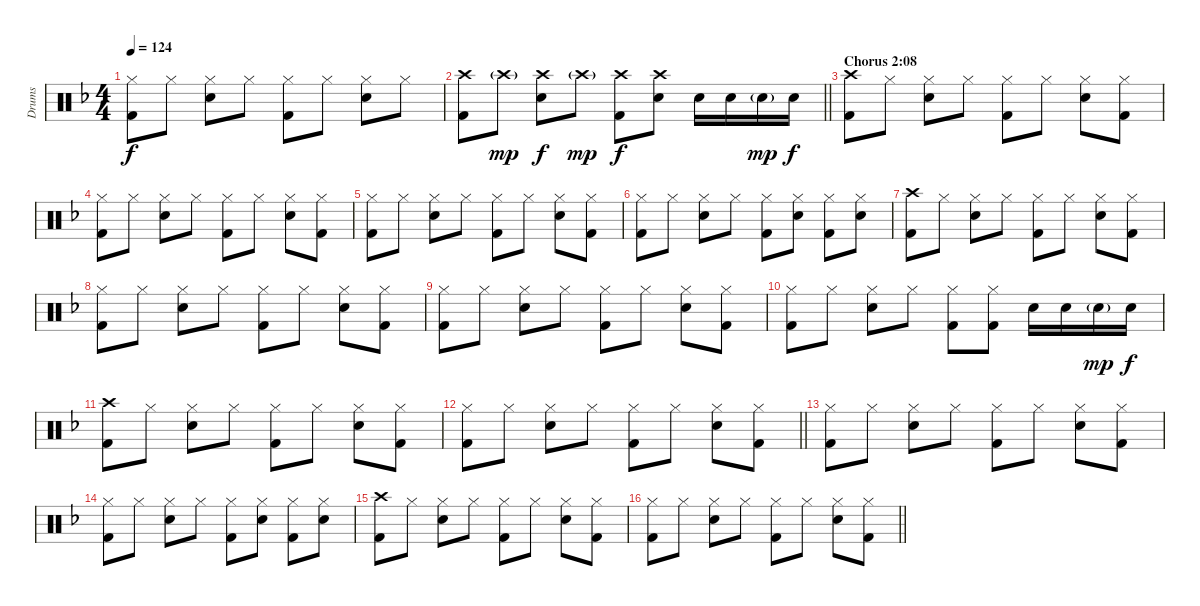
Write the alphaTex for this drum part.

\track ("Drums" "Drums") {instrument percussion}
\staff {score}
\articulation defaults
\ts (4 4)
\tempo 124
\clef neutral
\ks f
("Hi-Hat (closed)" "Kick (hit) 2").8{dy f} "Hi-Hat (closed)".8 ("Hi-Hat (closed)" "Snare (hit) 2").8 "Hi-Hat (closed)".8 ("Hi-Hat (closed)" "Kick (hit) 2").8 "Hi-Hat (closed)".8 ("Hi-Hat (closed)" "Snare (hit) 2").8 "Hi-Hat (closed)".8 |
\barLineRight lightlight
("Crash high (hit)" "Kick (hit) 2").8 "Crash high (hit)"{g}.8{dy mp} ("Crash high (hit)" "Snare (hit) 2").8{dy f} "Crash high (hit)"{g}.8{dy mp} ("Crash high (hit)" "Kick (hit) 2").8{dy f} ("Crash high (hit)" "Snare (hit) 2").8 "Snare (hit) 2".16 "Snare (hit) 2".16 "Snare (hit) 2"{g}.16{dy mp} "Snare (hit) 2".16{dy f} |
\section ("" "Chorus 2:08")
("Crash high (hit)" "Kick (hit) 2").8 "Hi-Hat (closed)".8 ("Hi-Hat (closed)" "Snare (hit) 2").8 "Hi-Hat (closed)".8 ("Hi-Hat (closed)" "Kick (hit) 2").8 "Hi-Hat (closed)".8 ("Hi-Hat (closed)" "Snare (hit) 2").8 ("Hi-Hat (closed)" "Kick (hit) 2").8 |
("Hi-Hat (closed)" "Kick (hit) 2").8 "Hi-Hat (closed)".8 ("Hi-Hat (closed)" "Snare (hit) 2").8 "Hi-Hat (closed)".8 ("Hi-Hat (closed)" "Kick (hit) 2").8 "Hi-Hat (closed)".8 ("Hi-Hat (closed)" "Snare (hit) 2").8 ("Hi-Hat (closed)" "Kick (hit) 2").8 |
("Hi-Hat (closed)" "Kick (hit) 2").8 "Hi-Hat (closed)".8 ("Hi-Hat (closed)" "Snare (hit) 2").8 "Hi-Hat (closed)".8 ("Hi-Hat (closed)" "Kick (hit) 2").8 "Hi-Hat (closed)".8 ("Hi-Hat (closed)" "Snare (hit) 2").8 ("Hi-Hat (closed)" "Kick (hit) 2").8 |
("Hi-Hat (closed)" "Kick (hit) 2").8 "Hi-Hat (closed)".8 ("Hi-Hat (closed)" "Snare (hit) 2").8 "Hi-Hat (closed)".8 ("Hi-Hat (closed)" "Kick (hit) 2").8 ("Hi-Hat (closed)" "Snare (hit) 2").8 ("Hi-Hat (closed)" "Kick (hit) 2").8 ("Hi-Hat (closed)" "Snare (hit) 2").8 |
("Crash high (hit)" "Kick (hit) 2").8 "Hi-Hat (closed)".8 ("Hi-Hat (closed)" "Snare (hit) 2").8 "Hi-Hat (closed)".8 ("Hi-Hat (closed)" "Kick (hit) 2").8 "Hi-Hat (closed)".8 ("Hi-Hat (closed)" "Snare (hit) 2").8 ("Hi-Hat (closed)" "Kick (hit) 2").8 |
("Hi-Hat (closed)" "Kick (hit) 2").8 "Hi-Hat (closed)".8 ("Hi-Hat (closed)" "Snare (hit) 2").8 "Hi-Hat (closed)".8 ("Hi-Hat (closed)" "Kick (hit) 2").8 "Hi-Hat (closed)".8 ("Hi-Hat (closed)" "Snare (hit) 2").8 ("Hi-Hat (closed)" "Kick (hit) 2").8 |
("Hi-Hat (closed)" "Kick (hit) 2").8 "Hi-Hat (closed)".8 ("Hi-Hat (closed)" "Snare (hit) 2").8 "Hi-Hat (closed)".8 ("Hi-Hat (closed)" "Kick (hit) 2").8 "Hi-Hat (closed)".8 ("Hi-Hat (closed)" "Snare (hit) 2").8 ("Hi-Hat (closed)" "Kick (hit) 2").8 |
("Hi-Hat (closed)" "Kick (hit) 2").8 "Hi-Hat (closed)".8 ("Hi-Hat (closed)" "Snare (hit) 2").8 "Hi-Hat (closed)".8 ("Hi-Hat (closed)" "Kick (hit) 2").8 ("Hi-Hat (closed)" "Kick (hit) 2").8 "Snare (hit) 2".16 "Snare (hit) 2".16 "Snare (hit) 2"{g}.16{dy mp} "Snare (hit) 2".16{dy f} |
("Crash high (hit)" "Kick (hit) 2").8 "Hi-Hat (closed)".8 ("Hi-Hat (closed)" "Snare (hit) 2").8 "Hi-Hat (closed)".8 ("Hi-Hat (closed)" "Kick (hit) 2").8 "Hi-Hat (closed)".8 ("Hi-Hat (closed)" "Snare (hit) 2").8 ("Hi-Hat (closed)" "Kick (hit) 2").8 |
\barLineRight lightlight
("Hi-Hat (closed)" "Kick (hit) 2").8 "Hi-Hat (closed)".8 ("Hi-Hat (closed)" "Snare (hit) 2").8 "Hi-Hat (closed)".8 ("Hi-Hat (closed)" "Kick (hit) 2").8 "Hi-Hat (closed)".8 ("Hi-Hat (closed)" "Snare (hit) 2").8 ("Hi-Hat (closed)" "Kick (hit) 2").8 |
("Hi-Hat (closed)" "Kick (hit) 2").8 "Hi-Hat (closed)".8 ("Hi-Hat (closed)" "Snare (hit) 2").8 "Hi-Hat (closed)".8 ("Hi-Hat (closed)" "Kick (hit) 2").8 "Hi-Hat (closed)".8 ("Hi-Hat (closed)" "Snare (hit) 2").8 ("Hi-Hat (closed)" "Kick (hit) 2").8 |
("Hi-Hat (closed)" "Kick (hit) 2").8 "Hi-Hat (closed)".8 ("Hi-Hat (closed)" "Snare (hit) 2").8 "Hi-Hat (closed)".8 ("Hi-Hat (closed)" "Kick (hit) 2").8 ("Hi-Hat (closed)" "Snare (hit) 2").8 ("Hi-Hat (closed)" "Kick (hit) 2").8 ("Hi-Hat (closed)" "Snare (hit) 2").8 |
("Crash high (hit)" "Kick (hit) 2").8 "Hi-Hat (closed)".8 ("Hi-Hat (closed)" "Snare (hit) 2").8 "Hi-Hat (closed)".8 ("Hi-Hat (closed)" "Kick (hit) 2").8 "Hi-Hat (closed)".8 ("Hi-Hat (closed)" "Snare (hit) 2").8 ("Hi-Hat (closed)" "Kick (hit) 2").8 |
\barLineRight lightlight
("Hi-Hat (closed)" "Kick (hit) 2").8 "Hi-Hat (closed)".8 ("Hi-Hat (closed)" "Snare (hit) 2").8 "Hi-Hat (closed)".8 ("Hi-Hat (closed)" "Kick (hit) 2").8 "Hi-Hat (closed)".8 ("Hi-Hat (closed)" "Snare (hit) 2").8 ("Hi-Hat (closed)" "Kick (hit) 2").8
